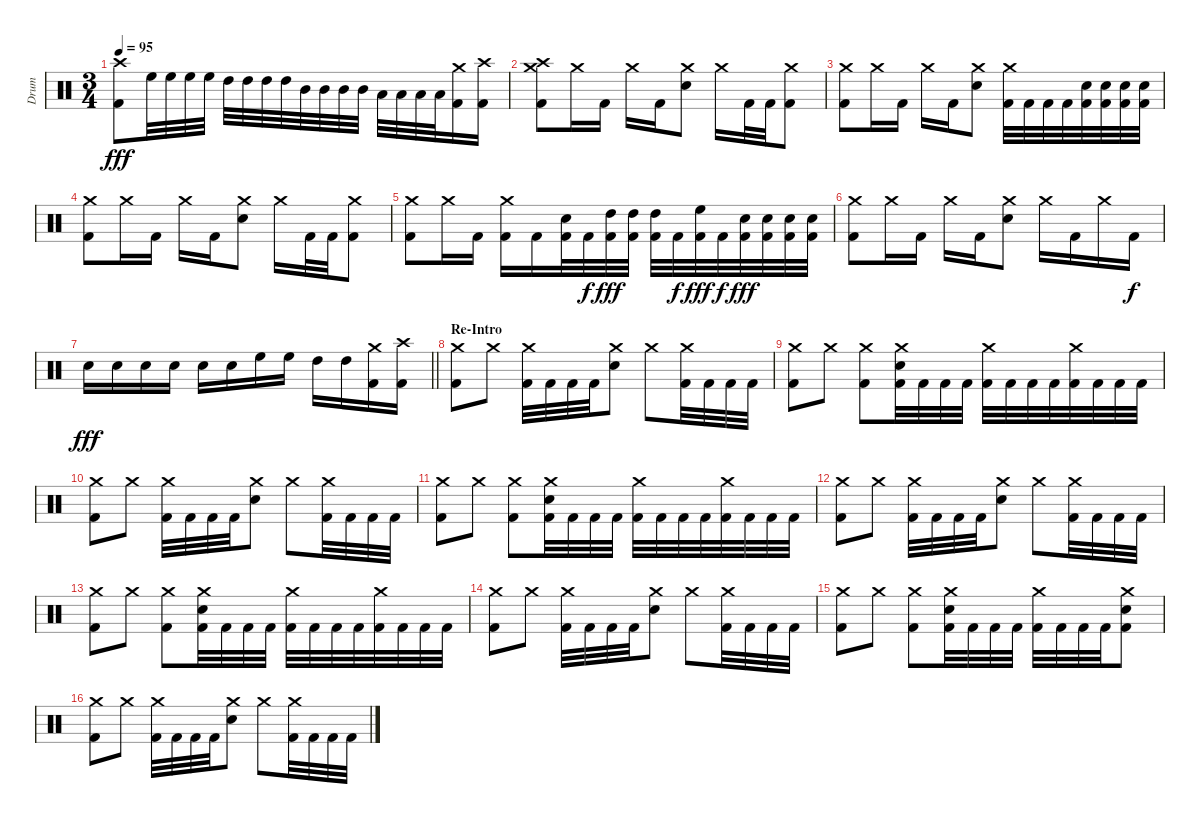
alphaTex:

\track ("Drum" "Drum") {instrument percussion}
\staff {score}
\articulation defaults
\ts (3 4)
\tempo 95
\clef neutral
\ks c
("Crash high (hit)" "Kick (hit) 2").8{dy fff} "High Floor Tom (hit)".32 "High Floor Tom (hit)".32 "High Floor Tom (hit)".32 "High Floor Tom (hit)".32 "High Tom (hit)".32 "High Tom (hit)".32 "High Tom (hit)".32 "High Tom (hit)".32 "Mid Tom (hit)".32 "Mid Tom (hit)".32 "Mid Tom (hit)".32 "Mid Tom (hit)".32 "Low Tom (hit)".32 "Low Tom (hit)".32 "Low Tom (hit)".32 "Low Tom (hit)".32 ("Crash medium (hit)" "Kick (hit) 2").16 ("Crash high (hit)" "Kick (hit) 2").16 |
("Crash medium (hit)" "Crash high (hit)" "Kick (hit) 2").8 "Crash medium (hit)".16 "Kick (hit) 2".16 "Crash medium (hit)".16 "Kick (hit) 2".16 ("Crash medium (hit)" "Electric Snare (hit)").8 "Crash medium (hit)".16 "Kick (hit) 2".32 "Kick (hit) 2".32 ("Crash medium (hit)" "Kick (hit) 2").8 |
("Crash medium (hit)" "Kick (hit) 2").8 "Crash medium (hit)".16 "Kick (hit) 2".16 "Crash medium (hit)".16 "Kick (hit) 2".16 ("Crash medium (hit)" "Electric Snare (hit)").8 ("Crash medium (hit)" "Kick (hit) 2").32 "Kick (hit) 2".32 "Kick (hit) 2".32 "Kick (hit) 2".32 ("Electric Snare (hit)" "Kick (hit) 2").32 ("Electric Snare (hit)" "Kick (hit) 2").32 ("Electric Snare (hit)" "Kick (hit) 2").32 ("Electric Snare (hit)" "Kick (hit) 2").32 |
("Crash medium (hit)" "Kick (hit) 2").8 "Crash medium (hit)".16 "Kick (hit) 2".16 "Crash medium (hit)".16 "Kick (hit) 2".16 ("Crash medium (hit)" "Electric Snare (hit)").8 "Crash medium (hit)".16 "Kick (hit) 2".32 "Kick (hit) 2".32 ("Crash medium (hit)" "Kick (hit) 2").8 |
("Crash medium (hit)" "Kick (hit) 2").8 "Crash medium (hit)".16 "Kick (hit) 2".16 ("Crash medium (hit)" "Kick (hit) 2").16 "Kick (hit) 2".16 ("Electric Snare (hit)" "Kick (hit) 2").32 "Kick (hit) 2".32{dy f} ("High Tom (hit)" "Kick (hit) 2").32{dy fff} ("High Tom (hit)" "Kick (hit) 2").32 ("High Tom (hit)" "Kick (hit) 2").32 "Kick (hit) 2".32{dy f} ("High Floor Tom (hit)" "Kick (hit) 2").32{dy fff} "Kick (hit) 2".32{dy f} ("Electric Snare (hit)" "Kick (hit) 2").32{dy fff} ("Electric Snare (hit)" "Kick (hit) 2").32 ("Electric Snare (hit)" "Kick (hit) 2").32 ("Electric Snare (hit)" "Kick (hit) 2").32 |
("Crash medium (hit)" "Kick (hit) 2").8 "Crash medium (hit)".16 "Kick (hit) 2".16 "Crash medium (hit)".16 "Kick (hit) 2".16 ("Crash medium (hit)" "Electric Snare (hit)").8 "Crash medium (hit)".16 "Kick (hit) 2".16 "Crash medium (hit)".16 "Kick (hit) 2".16{dy f} |
\barLineRight lightlight "Electric Snare (hit)".16{dy fff} "Electric Snare (hit)".16 "Electric Snare (hit)".16 "Electric Snare (hit)".16 "Electric Snare (hit)".16 "Electric Snare (hit)".16 "High Floor Tom (hit)".16 "High Floor Tom (hit)".16 "High Tom (hit)".16 "High Tom (hit)".16
("Crash medium (hit)" "Kick (hit) 2").16 ("Crash high (hit)" "Kick (hit) 2").16 |
\section ("" "Re-Intro")
("Crash medium (hit)" "Kick (hit) 2").8 "Crash medium (hit)".8 ("Crash medium (hit)" "Kick (hit) 2").32 "Kick (hit) 2".32 "Kick (hit) 2".32 "Kick (hit) 2".32 ("Crash medium (hit)" "Electric Snare (hit)").8 "Crash medium (hit)".8 ("Crash medium (hit)" "Kick (hit) 2").32 "Kick (hit) 2".32 "Kick (hit) 2".32 "Kick (hit) 2".32 |
("Crash medium (hit)" "Kick (hit) 2").8 "Crash medium (hit)".8 ("Crash medium (hit)" "Kick (hit) 2").8 ("Crash medium (hit)" "Electric Snare (hit)" "Kick (hit) 2").32 "Kick (hit) 2".32 "Kick (hit) 2".32 "Kick (hit) 2".32 ("Crash medium (hit)" "Kick (hit) 2").32 "Kick (hit) 2".32 "Kick (hit) 2".32 "Kick (hit) 2".32 ("Crash medium (hit)" "Kick (hit) 2").32 "Kick (hit) 2".32 "Kick (hit) 2".32 "Kick (hit) 2".32 |
("Crash medium (hit)" "Kick (hit) 2").8 "Crash medium (hit)".8 ("Crash medium (hit)" "Kick (hit) 2").32 "Kick (hit) 2".32 "Kick (hit) 2".32 "Kick (hit) 2".32 ("Crash medium (hit)" "Electric Snare (hit)").8 "Crash medium (hit)".8 ("Crash medium (hit)" "Kick (hit) 2").32 "Kick (hit) 2".32 "Kick (hit) 2".32 "Kick (hit) 2".32 |
("Crash medium (hit)" "Kick (hit) 2").8 "Crash medium (hit)".8 ("Crash medium (hit)" "Kick (hit) 2").8 ("Crash medium (hit)" "Electric Snare (hit)" "Kick (hit) 2").32 "Kick (hit) 2".32 "Kick (hit) 2".32 "Kick (hit) 2".32 ("Crash medium (hit)" "Kick (hit) 2").32 "Kick (hit) 2".32 "Kick (hit) 2".32 "Kick (hit) 2".32 ("Crash medium (hit)" "Kick (hit) 2").32 "Kick (hit) 2".32 "Kick (hit) 2".32 "Kick (hit) 2".32 |
("Crash medium (hit)" "Kick (hit) 2").8 "Crash medium (hit)".8 ("Crash medium (hit)" "Kick (hit) 2").32 "Kick (hit) 2".32 "Kick (hit) 2".32 "Kick (hit) 2".32 ("Crash medium (hit)" "Electric Snare (hit)").8 "Crash medium (hit)".8 ("Crash medium (hit)" "Kick (hit) 2").32 "Kick (hit) 2".32 "Kick (hit) 2".32 "Kick (hit) 2".32 |
("Crash medium (hit)" "Kick (hit) 2").8 "Crash medium (hit)".8 ("Crash medium (hit)" "Kick (hit) 2").8 ("Crash medium (hit)" "Electric Snare (hit)" "Kick (hit) 2").32 "Kick (hit) 2".32 "Kick (hit) 2".32 "Kick (hit) 2".32 ("Crash medium (hit)" "Kick (hit) 2").32 "Kick (hit) 2".32 "Kick (hit) 2".32 "Kick (hit) 2".32 ("Crash medium (hit)" "Kick (hit) 2").32 "Kick (hit) 2".32 "Kick (hit) 2".32 "Kick (hit) 2".32 |
("Crash medium (hit)" "Kick (hit) 2").8 "Crash medium (hit)".8 ("Crash medium (hit)" "Kick (hit) 2").32 "Kick (hit) 2".32 "Kick (hit) 2".32 "Kick (hit) 2".32 ("Crash medium (hit)" "Electric Snare (hit)").8 "Crash medium (hit)".8 ("Crash medium (hit)" "Kick (hit) 2").32 "Kick (hit) 2".32 "Kick (hit) 2".32 "Kick (hit) 2".32 |
("Crash medium (hit)" "Kick (hit) 2").8 "Crash medium (hit)".8 ("Crash medium (hit)" "Kick (hit) 2").8 ("Crash medium (hit)" "Electric Snare (hit)" "Kick (hit) 2").32 "Kick (hit) 2".32 "Kick (hit) 2".32 "Kick (hit) 2".32 ("Crash medium (hit)" "Kick (hit) 2").32 "Kick (hit) 2".32 "Kick (hit) 2".32 "Kick (hit) 2".32 ("Crash medium (hit)" "Electric Snare (hit)" "Kick (hit) 2").8 |
("Crash medium (hit)" "Kick (hit) 2").8 "Crash medium (hit)".8 ("Crash medium (hit)" "Kick (hit) 2").32 "Kick (hit) 2".32 "Kick (hit) 2".32 "Kick (hit) 2".32 ("Crash medium (hit)" "Electric Snare (hit)").8 "Crash medium (hit)".8 ("Crash medium (hit)" "Kick (hit) 2").32 "Kick (hit) 2".32 "Kick (hit) 2".32 "Kick (hit) 2".32
